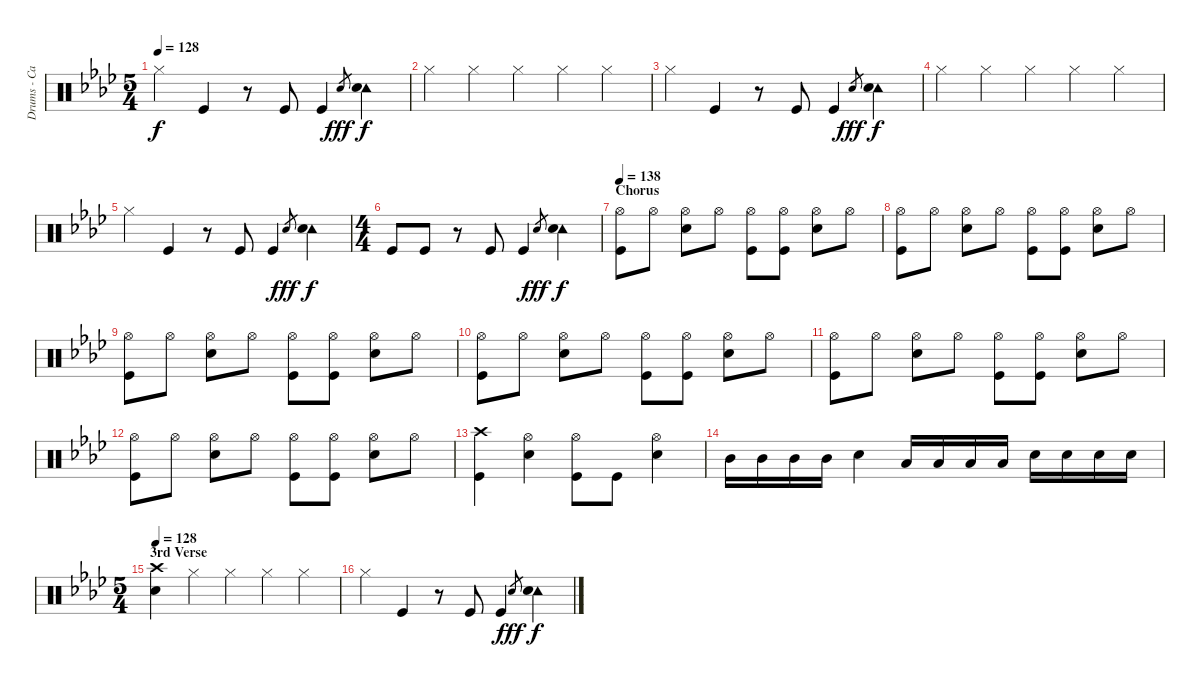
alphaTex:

\track ("Drums - Carl Palmer" "Drums - Ca") {instrument percussion}
\staff {score}
\articulation defaults
\ts (5 4)
\tempo 128
\clef neutral
\ks ab "Hi-Hat (closed)".4{dy f} "Kick (hit)".4
r.8 "Kick (hit)".8 "Kick (hit)".4 "Snare (hit) 2".8{gr dy fff} ("Tambourine (hit)" "Snare (hit) 2").4{dy f} |
"Hi-Hat (closed)".4 "Hi-Hat (closed)".4 "Hi-Hat (closed)".4 "Hi-Hat (closed)".4 "Hi-Hat (closed)".4 |
"Hi-Hat (closed)".4 "Kick (hit)".4 r.8 "Kick (hit)".8 "Kick (hit)".4 "Snare (hit) 2".8{gr dy fff} ("Tambourine (hit)" "Snare (hit) 2").4{dy f} |
"Hi-Hat (closed)".4 "Hi-Hat (closed)".4 "Hi-Hat (closed)".4 "Hi-Hat (closed)".4 "Hi-Hat (closed)".4 |
"Hi-Hat (closed)".4 "Kick (hit)".4 r.8 "Kick (hit)".8 "Kick (hit)".4 "Snare (hit) 2".8{gr dy fff} ("Tambourine (hit)" "Snare (hit) 2").4{dy f} |
\ts (4 4)
"Kick (hit)".8 "Kick (hit)".8 r.8 "Kick (hit)".8 "Kick (hit)".4 "Snare (hit) 2".8{gr dy fff} ("Tambourine (hit)" "Snare (hit) 2").4{dy f} |
\section ("" "Chorus")
\tempo 138
("Hi-Hat (open)" "Kick (hit)").8 "Hi-Hat (open)".8 ("Hi-Hat (open)" "Snare (hit) 2").8 "Hi-Hat (open)".8 ("Hi-Hat (open)" "Kick (hit)").8 ("Hi-Hat (open)" "Kick (hit)").8 ("Hi-Hat (open)" "Snare (hit) 2").8 "Hi-Hat (open)".8 |
("Hi-Hat (open)" "Kick (hit)").8 "Hi-Hat (open)".8 ("Hi-Hat (open)" "Snare (hit) 2").8 "Hi-Hat (open)".8 ("Hi-Hat (open)" "Kick (hit)").8 ("Hi-Hat (open)" "Kick (hit)").8 ("Hi-Hat (open)" "Snare (hit) 2").8 "Hi-Hat (open)".8 |
("Hi-Hat (open)" "Kick (hit)").8 "Hi-Hat (open)".8 ("Hi-Hat (open)" "Snare (hit) 2").8 "Hi-Hat (open)".8 ("Hi-Hat (open)" "Kick (hit)").8 ("Hi-Hat (open)" "Kick (hit)").8 ("Hi-Hat (open)" "Snare (hit) 2").8 "Hi-Hat (open)".8 |
("Hi-Hat (open)" "Kick (hit)").8 "Hi-Hat (open)".8 ("Hi-Hat (open)" "Snare (hit) 2").8 "Hi-Hat (open)".8 ("Hi-Hat (open)" "Kick (hit)").8 ("Hi-Hat (open)" "Kick (hit)").8 ("Hi-Hat (open)" "Snare (hit) 2").8 "Hi-Hat (open)".8 |
("Hi-Hat (open)" "Kick (hit)").8 "Hi-Hat (open)".8 ("Hi-Hat (open)" "Snare (hit) 2").8 "Hi-Hat (open)".8 ("Hi-Hat (open)" "Kick (hit)").8 ("Hi-Hat (open)" "Kick (hit)").8 ("Hi-Hat (open)" "Snare (hit) 2").8 "Hi-Hat (open)".8 |
("Hi-Hat (open)" "Kick (hit)").8 "Hi-Hat (open)".8 ("Hi-Hat (open)" "Snare (hit) 2").8 "Hi-Hat (open)".8 ("Hi-Hat (open)" "Kick (hit)").8 ("Hi-Hat (open)" "Kick (hit)").8 ("Hi-Hat (open)" "Snare (hit) 2").8 "Hi-Hat (open)".8 |
("Crash high (hit)" "Kick (hit)").4 ("Hi-Hat (open)" "Snare (hit) 2").4 ("Hi-Hat (open)" "Kick (hit)").8 "Kick (hit)".8 ("Hi-Hat (open)" "Snare (hit) 2").4 |
"Mid Tom (hit)".16 "Mid Tom (hit)".16 "Mid Tom (hit)".16 "Mid Tom (hit)".16 "Snare (hit) 2".4 "Low Tom (hit)".16 "Low Tom (hit)".16 "Low Tom (hit)".16 "Low Tom (hit)".16 "Snare (hit) 2".16 "Snare (hit) 2".16 "Snare (hit) 2".16 "Snare (hit) 2".16 |
\ts (5 4)
\section ("" "3rd Verse")
\tempo 128
("Crash high (hit)" "Snare (hit) 2").4 "Hi-Hat (closed)".4 "Hi-Hat (closed)".4 "Hi-Hat (closed)".4 "Hi-Hat (closed)".4 |
"Hi-Hat (closed)".4 "Kick (hit)".4 r.8 "Kick (hit)".8 "Kick (hit)".4 "Snare (hit) 2".8{gr dy fff} ("Tambourine (hit)" "Snare (hit) 2").4{dy f}
